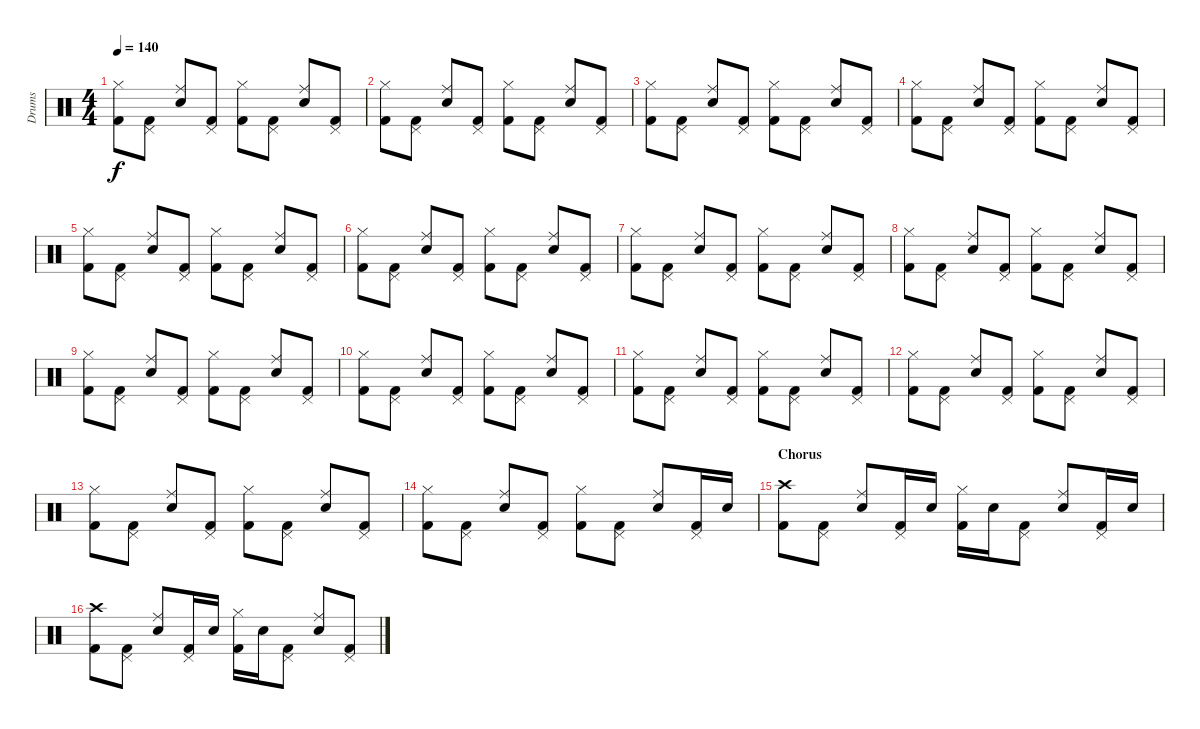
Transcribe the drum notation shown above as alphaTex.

\track ("Drums" "Drums") {instrument percussion}
\staff {score}
\articulation defaults
\ts (4 4)
\tempo 140
\clef neutral
\ks c
("Kick (hit) 2" "Hi-Hat (closed)").8{dy f} ("Kick (hit) 2" "Pedal Hi-Hat (hit)").8 ("Electric Snare (hit)" "Ride (middle)").8 ("Kick (hit) 2" "Pedal Hi-Hat (hit)").8 ("Kick (hit) 2" "Hi-Hat (closed)").8 ("Kick (hit) 2" "Pedal Hi-Hat (hit)").8 ("Electric Snare (hit)" "Ride (middle)").8 ("Kick (hit) 2" "Pedal Hi-Hat (hit)").8 |
("Kick (hit) 2" "Hi-Hat (closed)").8 ("Kick (hit) 2" "Pedal Hi-Hat (hit)").8 ("Electric Snare (hit)" "Ride (middle)").8 ("Kick (hit) 2" "Pedal Hi-Hat (hit)").8 ("Kick (hit) 2" "Hi-Hat (closed)").8 ("Kick (hit) 2" "Pedal Hi-Hat (hit)").8 ("Electric Snare (hit)" "Ride (middle)").8 ("Kick (hit) 2" "Pedal Hi-Hat (hit)").8 |
("Kick (hit) 2" "Hi-Hat (closed)").8 ("Kick (hit) 2" "Pedal Hi-Hat (hit)").8 ("Electric Snare (hit)" "Ride (middle)").8 ("Kick (hit) 2" "Pedal Hi-Hat (hit)").8 ("Kick (hit) 2" "Hi-Hat (closed)").8 ("Kick (hit) 2" "Pedal Hi-Hat (hit)").8 ("Electric Snare (hit)" "Ride (middle)").8 ("Kick (hit) 2" "Pedal Hi-Hat (hit)").8 |
("Kick (hit) 2" "Hi-Hat (closed)").8 ("Kick (hit) 2" "Pedal Hi-Hat (hit)").8 ("Electric Snare (hit)" "Ride (middle)").8 ("Kick (hit) 2" "Pedal Hi-Hat (hit)").8 ("Kick (hit) 2" "Hi-Hat (closed)").8 ("Kick (hit) 2" "Pedal Hi-Hat (hit)").8 ("Electric Snare (hit)" "Ride (middle)").8 ("Kick (hit) 2" "Pedal Hi-Hat (hit)").8 |
("Kick (hit) 2" "Hi-Hat (closed)").8 ("Kick (hit) 2" "Pedal Hi-Hat (hit)").8 ("Electric Snare (hit)" "Ride (middle)").8 ("Kick (hit) 2" "Pedal Hi-Hat (hit)").8 ("Kick (hit) 2" "Hi-Hat (closed)").8 ("Kick (hit) 2" "Pedal Hi-Hat (hit)").8 ("Electric Snare (hit)" "Ride (middle)").8 ("Kick (hit) 2" "Pedal Hi-Hat (hit)").8 |
("Kick (hit) 2" "Hi-Hat (closed)").8 ("Kick (hit) 2" "Pedal Hi-Hat (hit)").8 ("Electric Snare (hit)" "Ride (middle)").8 ("Kick (hit) 2" "Pedal Hi-Hat (hit)").8 ("Kick (hit) 2" "Hi-Hat (closed)").8 ("Kick (hit) 2" "Pedal Hi-Hat (hit)").8 ("Electric Snare (hit)" "Ride (middle)").8 ("Kick (hit) 2" "Pedal Hi-Hat (hit)").8 |
("Kick (hit) 2" "Hi-Hat (closed)").8 ("Kick (hit) 2" "Pedal Hi-Hat (hit)").8 ("Electric Snare (hit)" "Ride (middle)").8 ("Kick (hit) 2" "Pedal Hi-Hat (hit)").8 ("Kick (hit) 2" "Hi-Hat (closed)").8 ("Kick (hit) 2" "Pedal Hi-Hat (hit)").8 ("Electric Snare (hit)" "Ride (middle)").8 ("Kick (hit) 2" "Pedal Hi-Hat (hit)").8 |
("Kick (hit) 2" "Hi-Hat (closed)").8 ("Kick (hit) 2" "Pedal Hi-Hat (hit)").8 ("Electric Snare (hit)" "Ride (middle)").8 ("Kick (hit) 2" "Pedal Hi-Hat (hit)").8 ("Kick (hit) 2" "Hi-Hat (closed)").8 ("Kick (hit) 2" "Pedal Hi-Hat (hit)").8 ("Electric Snare (hit)" "Ride (middle)").8 ("Kick (hit) 2" "Pedal Hi-Hat (hit)").8 |
("Kick (hit) 2" "Hi-Hat (closed)").8 ("Kick (hit) 2" "Pedal Hi-Hat (hit)").8 ("Electric Snare (hit)" "Ride (middle)").8 ("Kick (hit) 2" "Pedal Hi-Hat (hit)").8 ("Kick (hit) 2" "Hi-Hat (closed)").8 ("Kick (hit) 2" "Pedal Hi-Hat (hit)").8 ("Electric Snare (hit)" "Ride (middle)").8 ("Kick (hit) 2" "Pedal Hi-Hat (hit)").8 |
("Kick (hit) 2" "Hi-Hat (closed)").8 ("Kick (hit) 2" "Pedal Hi-Hat (hit)").8 ("Electric Snare (hit)" "Ride (middle)").8 ("Kick (hit) 2" "Pedal Hi-Hat (hit)").8 ("Kick (hit) 2" "Hi-Hat (closed)").8 ("Kick (hit) 2" "Pedal Hi-Hat (hit)").8 ("Electric Snare (hit)" "Ride (middle)").8 ("Kick (hit) 2" "Pedal Hi-Hat (hit)").8 |
("Kick (hit) 2" "Hi-Hat (closed)").8 ("Kick (hit) 2" "Pedal Hi-Hat (hit)").8 ("Electric Snare (hit)" "Ride (middle)").8 ("Kick (hit) 2" "Pedal Hi-Hat (hit)").8 ("Kick (hit) 2" "Hi-Hat (closed)").8 ("Kick (hit) 2" "Pedal Hi-Hat (hit)").8 ("Electric Snare (hit)" "Ride (middle)").8 ("Kick (hit) 2" "Pedal Hi-Hat (hit)").8 |
("Kick (hit) 2" "Hi-Hat (closed)").8 ("Kick (hit) 2" "Pedal Hi-Hat (hit)").8 ("Electric Snare (hit)" "Ride (middle)").8 ("Kick (hit) 2" "Pedal Hi-Hat (hit)").8 ("Kick (hit) 2" "Hi-Hat (closed)").8 ("Kick (hit) 2" "Pedal Hi-Hat (hit)").8 ("Electric Snare (hit)" "Ride (middle)").8 ("Kick (hit) 2" "Pedal Hi-Hat (hit)").8 |
("Kick (hit) 2" "Hi-Hat (closed)").8 ("Kick (hit) 2" "Pedal Hi-Hat (hit)").8 ("Electric Snare (hit)" "Ride (middle)").8 ("Kick (hit) 2" "Pedal Hi-Hat (hit)").8 ("Kick (hit) 2" "Hi-Hat (closed)").8 ("Kick (hit) 2" "Pedal Hi-Hat (hit)").8 ("Electric Snare (hit)" "Ride (middle)").8 ("Kick (hit) 2" "Pedal Hi-Hat (hit)").8 |
("Kick (hit) 2" "Hi-Hat (closed)").8 ("Kick (hit) 2" "Pedal Hi-Hat (hit)").8 ("Electric Snare (hit)" "Ride (middle)").8 ("Kick (hit) 2" "Pedal Hi-Hat (hit)").8 ("Kick (hit) 2" "Hi-Hat (closed)").8 ("Kick (hit) 2" "Pedal Hi-Hat (hit)").8 ("Electric Snare (hit)" "Ride (middle)").8 ("Kick (hit) 2" "Pedal Hi-Hat (hit)").16 "Electric Snare (hit)".16 |
\section ("" "Chorus")
("Kick (hit) 2" "Crash high (hit)").8 ("Kick (hit) 2" "Pedal Hi-Hat (hit)").8 ("Electric Snare (hit)" "Ride (middle)").8 ("Kick (hit) 2" "Pedal Hi-Hat (hit)").16 "Snare (hit) 2".16 ("Kick (hit) 2" "Hi-Hat (closed)").16 "Snare (hit) 2".16 ("Kick (hit) 2" "Pedal Hi-Hat (hit)").8 ("Electric Snare (hit)" "Ride (middle)").8 ("Kick (hit) 2" "Pedal Hi-Hat (hit)").16 "Electric Snare (hit)".16 |
("Kick (hit) 2" "Crash high (hit)").8 ("Kick (hit) 2" "Pedal Hi-Hat (hit)").8 ("Electric Snare (hit)" "Ride (middle)").8 ("Kick (hit) 2" "Pedal Hi-Hat (hit)").16 "Snare (hit) 2".16 ("Kick (hit) 2" "Hi-Hat (closed)").16 "Snare (hit) 2".16 ("Kick (hit) 2" "Pedal Hi-Hat (hit)").8 ("Electric Snare (hit)" "Ride (middle)").8 ("Kick (hit) 2" "Pedal Hi-Hat (hit)").8
